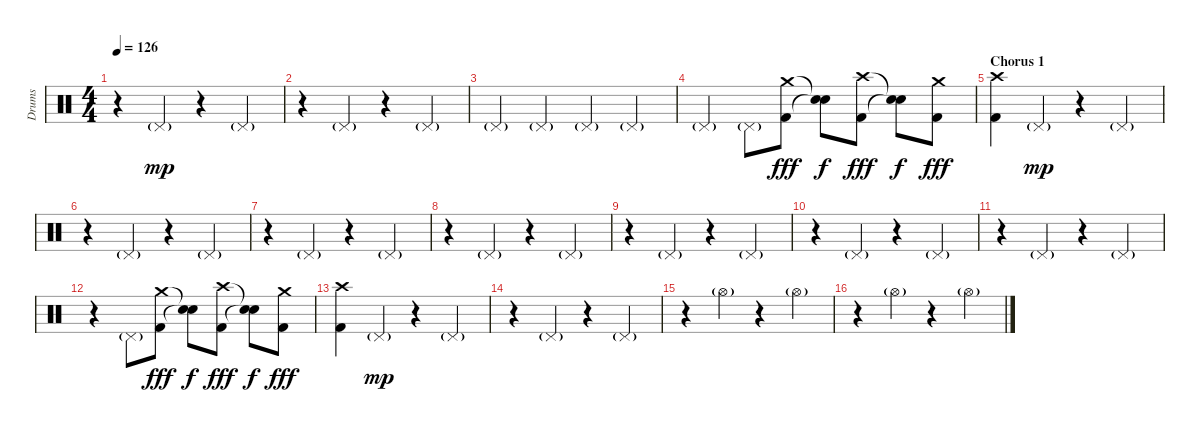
\track ("Drums" "Drums") {instrument percussion}
\staff {score}
\articulation defaults
\ts (4 4)
\tempo 126
\clef neutral
\ks c
r.4{dy mp} "Pedal Hi-Hat (hit)"{g}.4 r.4 "Pedal Hi-Hat (hit)"{g}.4 |
r.4 "Pedal Hi-Hat (hit)"{g}.4 r.4 "Pedal Hi-Hat (hit)"{g}.4 |
"Pedal Hi-Hat (hit)"{g}.4 "Pedal Hi-Hat (hit)"{g}.4 "Pedal Hi-Hat (hit)"{g}.4 "Pedal Hi-Hat (hit)"{g}.4 |
"Pedal Hi-Hat (hit)"{g}.4 "Pedal Hi-Hat (hit)"{g}.8 ("Crash medium (hit)" "Kick (hit) 2").8{dy fff} ("Snare (hit)"{t} "Snare (hit)"{t}).8{dy f} ("Crash high (hit)" "Kick (hit) 2").8{dy fff} ("Snare (hit)"{t} "Snare (hit)"{t}).8{dy f} ("Crash medium (hit)" "Kick (hit) 2").8{dy fff} |
\section ("" "Chorus 1")
("Crash high (hit)" "Kick (hit) 2").4 "Pedal Hi-Hat (hit)"{g}.4{dy mp} r.4 "Pedal Hi-Hat (hit)"{g}.4 |
r.4 "Pedal Hi-Hat (hit)"{g}.4 r.4 "Pedal Hi-Hat (hit)"{g}.4 |
r.4 "Pedal Hi-Hat (hit)"{g}.4 r.4 "Pedal Hi-Hat (hit)"{g}.4 |
r.4 "Pedal Hi-Hat (hit)"{g}.4 r.4 "Pedal Hi-Hat (hit)"{g}.4 |
r.4 "Pedal Hi-Hat (hit)"{g}.4 r.4 "Pedal Hi-Hat (hit)"{g}.4 |
r.4 "Pedal Hi-Hat (hit)"{g}.4 r.4 "Pedal Hi-Hat (hit)"{g}.4 |
r.4 "Pedal Hi-Hat (hit)"{g}.4 r.4 "Pedal Hi-Hat (hit)"{g}.4 |
r.4 "Pedal Hi-Hat (hit)"{g}.8 ("Crash medium (hit)" "Kick (hit) 2").8{dy fff} ("Snare (hit)"{t} "Snare (hit)"{t}).8{dy f} ("Crash high (hit)" "Kick (hit) 2").8{dy fff} ("Snare (hit)"{t} "Snare (hit)"{t}).8{dy f} ("Crash medium (hit)" "Kick (hit) 2").8{dy fff} |
("Crash high (hit)" "Kick (hit) 2").4 "Pedal Hi-Hat (hit)"{g}.4{dy mp} r.4 "Pedal Hi-Hat (hit)"{g}.4 |
r.4 "Pedal Hi-Hat (hit)"{g}.4 r.4 "Pedal Hi-Hat (hit)"{g}.4 |
r.4 "Hi-Hat (open)"{g}.4 r.4 "Hi-Hat (open)"{g}.4 |
r.4 "Hi-Hat (open)"{g}.4 r.4 "Hi-Hat (open)"{g}.4
